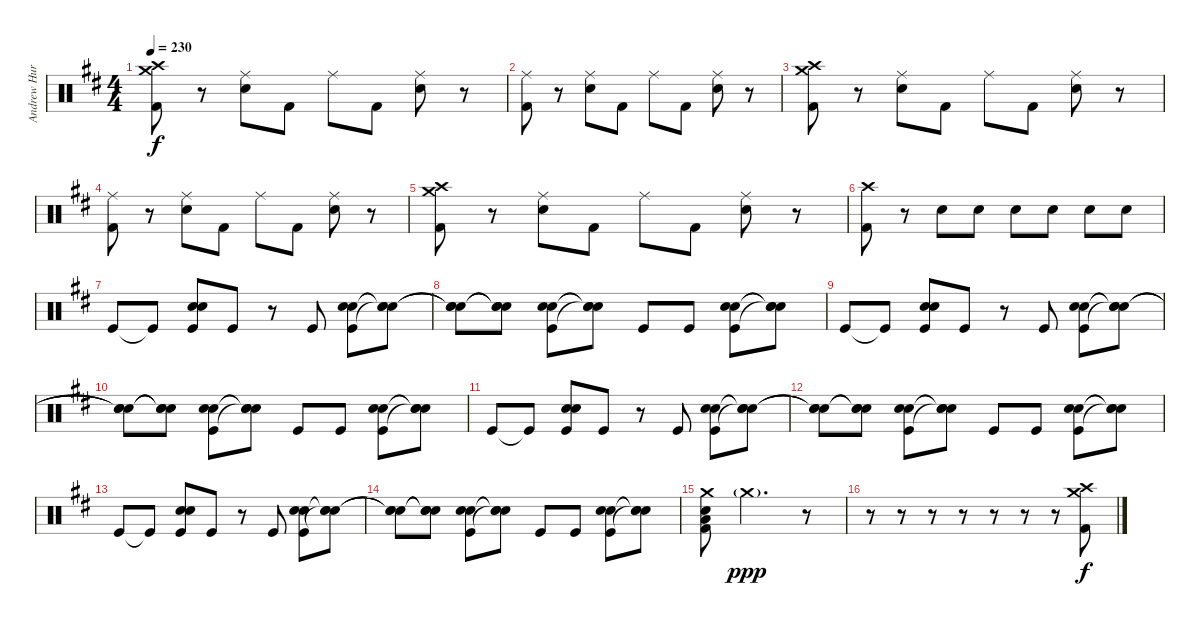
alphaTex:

\track ("Andrew Hurley" "Andrew Hur") {instrument percussion}
\staff {score}
\articulation defaults
\ts (4 4)
\tempo 230
\clef neutral
\ks d
("Crash high (hit)" "Crash medium (hit)" "Kick (hit) 2").8{dy f} r.8 ("Ride (middle)" "Electric Snare (hit)").8 "Kick (hit) 2".8 "Ride (middle)".8 "Kick (hit) 2".8 ("Ride (middle)" "Electric Snare (hit)").8 r.8 |
("Ride (middle)" "Kick (hit) 2").8 r.8 ("Ride (middle)" "Electric Snare (hit)").8 "Kick (hit) 2".8 "Ride (middle)".8 "Kick (hit) 2".8 ("Ride (middle)" "Electric Snare (hit)").8 r.8 |
("Crash high (hit)" "Crash medium (hit)" "Kick (hit) 2").8 r.8 ("Ride (middle)" "Electric Snare (hit)").8 "Kick (hit) 2".8 "Ride (middle)".8 "Kick (hit) 2".8 ("Ride (middle)" "Electric Snare (hit)").8 r.8 |
("Ride (middle)" "Kick (hit) 2").8 r.8 ("Ride (middle)" "Electric Snare (hit)").8 "Kick (hit) 2".8 "Ride (middle)".8 "Kick (hit) 2".8 ("Ride (middle)" "Electric Snare (hit)").8 r.8 |
("Crash high (hit)" "Crash medium (hit)" "Kick (hit) 2").8 r.8 ("Ride (middle)" "Electric Snare (hit)").8 "Kick (hit) 2".8 "Ride (middle)".8 "Kick (hit) 2".8 ("Ride (middle)" "Electric Snare (hit)").8 r.8 |
("Crash high (hit)" "Kick (hit) 2").8 r.8 "Electric Snare (hit)".8 "Electric Snare (hit)".8 "Electric Snare (hit)".8 "Electric Snare (hit)".8 "Electric Snare (hit)".8 "Electric Snare (hit)".8 |
"Kick (hit)".8 "Kick (hit)"{t}.8 ("Kick (hit)" "Snare (hit) 2" "Electric Snare (hit)").8 "Kick (hit)".8 r.8 "Kick (hit)".8 ("Electric Snare (hit)" "Snare (hit) 2" "Kick (hit)").8 ("Snare (hit)"{t} "Snare (hit)"{t} "Snare (hit)"{t}).8 |
("Snare (hit)"{t} "Snare (hit)"{t} "Snare (hit)"{t}).8 ("Snare (hit)"{t} "Snare (hit)"{t} "Snare (hit)"{t}).8 ("Electric Snare (hit)" "Snare (hit) 2" "Kick (hit)").8 ("Snare (hit)"{t} "Snare (hit)"{t} "Snare (hit)"{t}).8 "Kick (hit)".8 "Kick (hit)".8 ("Electric Snare (hit)" "Snare (hit) 2" "Kick (hit)").8 ("Snare (hit)"{t} "Snare (hit)"{t} "Snare (hit)"{t}).8 |
"Kick (hit)".8 "Kick (hit)"{t}.8 ("Kick (hit)" "Snare (hit) 2" "Electric Snare (hit)").8 "Kick (hit)".8 r.8 "Kick (hit)".8 ("Electric Snare (hit)" "Snare (hit) 2" "Kick (hit)").8 ("Snare (hit)"{t} "Snare (hit)"{t} "Snare (hit)"{t}).8 |
("Snare (hit)"{t} "Snare (hit)"{t} "Snare (hit)"{t}).8 ("Snare (hit)"{t} "Snare (hit)"{t} "Snare (hit)"{t}).8 ("Electric Snare (hit)" "Snare (hit) 2" "Kick (hit)").8 ("Snare (hit)"{t} "Snare (hit)"{t} "Snare (hit)"{t}).8 "Kick (hit)".8 "Kick (hit)".8 ("Electric Snare (hit)" "Snare (hit) 2" "Kick (hit)").8 ("Snare (hit)"{t} "Snare (hit)"{t} "Snare (hit)"{t}).8 |
"Kick (hit)".8 "Kick (hit)"{t}.8 ("Kick (hit)" "Snare (hit) 2" "Electric Snare (hit)").8 "Kick (hit)".8 r.8 "Kick (hit)".8 ("Electric Snare (hit)" "Snare (hit) 2" "Kick (hit)").8 ("Snare (hit)"{t} "Snare (hit)"{t} "Snare (hit)"{t}).8 |
("Snare (hit)"{t} "Snare (hit)"{t} "Snare (hit)"{t}).8 ("Snare (hit)"{t} "Snare (hit)"{t} "Snare (hit)"{t}).8 ("Electric Snare (hit)" "Snare (hit) 2" "Kick (hit)").8 ("Snare (hit)"{t} "Snare (hit)"{t} "Snare (hit)"{t}).8 "Kick (hit)".8 "Kick (hit)".8 ("Electric Snare (hit)" "Snare (hit) 2" "Kick (hit)").8 ("Snare (hit)"{t} "Snare (hit)"{t} "Snare (hit)"{t}).8 |
"Kick (hit)".8 "Kick (hit)"{t}.8 ("Kick (hit)" "Snare (hit) 2" "Electric Snare (hit)").8 "Kick (hit)".8 r.8 "Kick (hit)".8 ("Electric Snare (hit)" "Snare (hit) 2" "Kick (hit)").8 ("Snare (hit)"{t} "Snare (hit)"{t} "Snare (hit)"{t}).8 |
("Snare (hit)"{t} "Snare (hit)"{t} "Snare (hit)"{t}).8 ("Snare (hit)"{t} "Snare (hit)"{t} "Snare (hit)"{t}).8 ("Electric Snare (hit)" "Snare (hit) 2" "Kick (hit)").8 ("Snare (hit)"{t} "Snare (hit)"{t} "Snare (hit)"{t}).8 "Kick (hit)".8 "Kick (hit)".8 ("Electric Snare (hit)" "Snare (hit) 2" "Kick (hit)").8 ("Snare (hit)"{t} "Snare (hit)"{t} "Snare (hit)"{t}).8 |
("Crash medium (hit)" "Low Tom (hit)" "Electric Snare (hit)" "Kick (hit) 2").8 "Crash medium (hit)"{g}.2{d dy ppp} r.8 |
r.8 r.8 r.8 r.8 r.8 r.8 r.8 ("Crash medium (hit)" "Crash high (hit)" "Kick (hit) 2").8{dy f}
